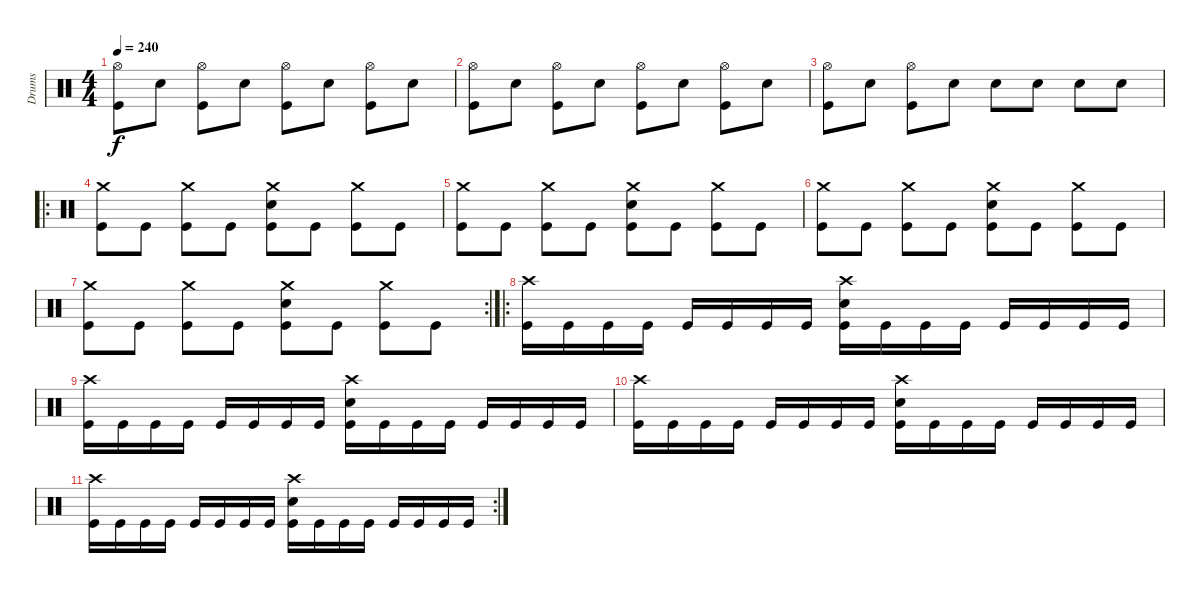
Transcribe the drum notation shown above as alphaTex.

\track ("Drums" "Drums") {instrument percussion}
\staff {score}
\articulation defaults
\ts (4 4)
\tempo 240
\clef neutral
\ks c
("Hi-Hat (open)" "Kick (hit)").8{dy f} "Snare (hit) 2".8 ("Hi-Hat (open)" "Kick (hit)").8 "Snare (hit) 2".8 ("Hi-Hat (open)" "Kick (hit)").8 "Snare (hit) 2".8 ("Hi-Hat (open)" "Kick (hit)").8 "Snare (hit) 2".8 |
("Hi-Hat (open)" "Kick (hit)").8 "Snare (hit) 2".8 ("Hi-Hat (open)" "Kick (hit)").8 "Snare (hit) 2".8 ("Hi-Hat (open)" "Kick (hit)").8 "Snare (hit) 2".8 ("Hi-Hat (open)" "Kick (hit)").8 "Snare (hit) 2".8 |
("Hi-Hat (open)" "Kick (hit)").8 "Snare (hit) 2".8 ("Hi-Hat (open)" "Kick (hit)").8 "Snare (hit) 2".8 "Snare (hit) 2".8 "Snare (hit) 2".8 "Snare (hit) 2".8 "Snare (hit) 2".8 |
\ro
("Crash medium (hit)" "Kick (hit)").8 "Kick (hit)".8 ("Crash medium (hit)" "Kick (hit)").8 "Kick (hit)".8 ("Crash medium (hit)" "Snare (hit) 2" "Kick (hit)").8 "Kick (hit)".8 ("Crash medium (hit)" "Kick (hit)").8 "Kick (hit)".8 |
("Crash medium (hit)" "Kick (hit)").8 "Kick (hit)".8 ("Crash medium (hit)" "Kick (hit)").8 "Kick (hit)".8 ("Crash medium (hit)" "Snare (hit) 2" "Kick (hit)").8 "Kick (hit)".8 ("Crash medium (hit)" "Kick (hit)").8 "Kick (hit)".8 |
("Crash medium (hit)" "Kick (hit)").8 "Kick (hit)".8 ("Crash medium (hit)" "Kick (hit)").8 "Kick (hit)".8 ("Crash medium (hit)" "Snare (hit) 2" "Kick (hit)").8 "Kick (hit)".8 ("Crash medium (hit)" "Kick (hit)").8 "Kick (hit)".8 |
\rc 2
("Crash medium (hit)" "Kick (hit)").8 "Kick (hit)".8 ("Crash medium (hit)" "Kick (hit)").8 "Kick (hit)".8 ("Crash medium (hit)" "Snare (hit) 2" "Kick (hit)").8 "Kick (hit)".8 ("Crash medium (hit)" "Kick (hit)").8 "Kick (hit)".8 |
\ro
("Crash high (hit)" "Kick (hit)").16 "Kick (hit)".16 "Kick (hit)".16 "Kick (hit)".16 "Kick (hit)".16 "Kick (hit)".16 "Kick (hit)".16 "Kick (hit)".16 ("Crash high (hit)" "Snare (hit) 2" "Kick (hit)").16 "Kick (hit)".16 "Kick (hit)".16 "Kick (hit)".16 "Kick (hit)".16 "Kick (hit)".16 "Kick (hit)".16 "Kick (hit)".16 |
("Crash high (hit)" "Kick (hit)").16 "Kick (hit)".16 "Kick (hit)".16 "Kick (hit)".16 "Kick (hit)".16 "Kick (hit)".16 "Kick (hit)".16 "Kick (hit)".16 ("Crash high (hit)" "Snare (hit) 2" "Kick (hit)").16 "Kick (hit)".16 "Kick (hit)".16 "Kick (hit)".16 "Kick (hit)".16 "Kick (hit)".16 "Kick (hit)".16 "Kick (hit)".16 |
("Crash high (hit)" "Kick (hit)").16 "Kick (hit)".16 "Kick (hit)".16 "Kick (hit)".16 "Kick (hit)".16 "Kick (hit)".16 "Kick (hit)".16 "Kick (hit)".16 ("Crash high (hit)" "Snare (hit) 2" "Kick (hit)").16 "Kick (hit)".16 "Kick (hit)".16 "Kick (hit)".16 "Kick (hit)".16 "Kick (hit)".16 "Kick (hit)".16 "Kick (hit)".16 |
\rc 2
("Crash high (hit)" "Kick (hit)").16 "Kick (hit)".16 "Kick (hit)".16 "Kick (hit)".16 "Kick (hit)".16 "Kick (hit)".16 "Kick (hit)".16 "Kick (hit)".16 ("Crash high (hit)" "Snare (hit) 2" "Kick (hit)").16 "Kick (hit)".16 "Kick (hit)".16 "Kick (hit)".16 "Kick (hit)".16 "Kick (hit)".16 "Kick (hit)".16 "Kick (hit)".16
